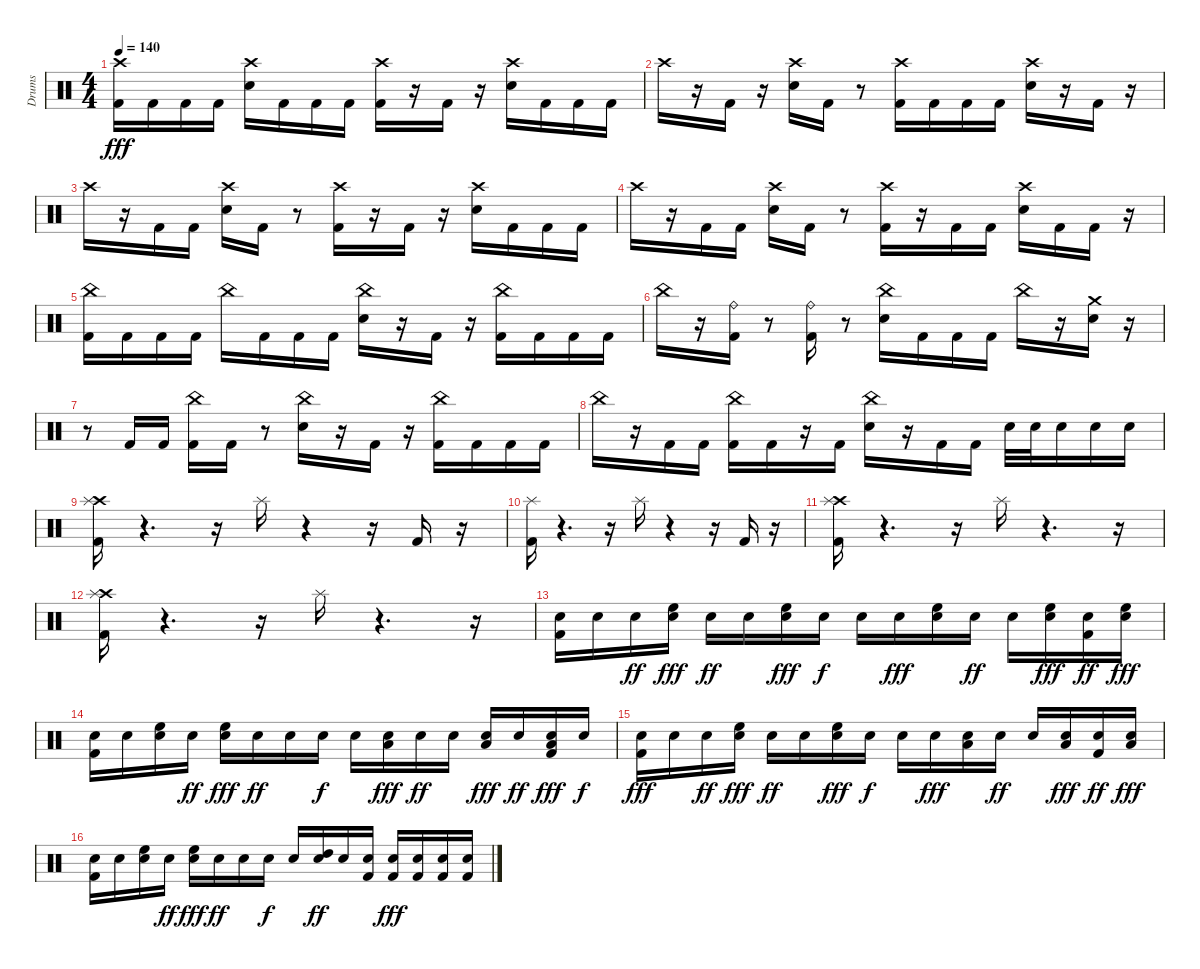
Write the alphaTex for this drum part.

\track ("Drums" "Drums") {instrument percussion}
\staff {score}
\articulation defaults
\ts (4 4)
\tempo 140
\clef neutral
\ks c
("Crash high (hit)" "Kick (hit) 2").16{dy fff} "Kick (hit) 2".16 "Kick (hit) 2".16 "Kick (hit) 2".16 ("Crash high (hit)" "Snare (hit) 2").16 "Kick (hit) 2".16 "Kick (hit) 2".16 "Kick (hit) 2".16 ("Crash high (hit)" "Kick (hit) 2").16 r.16 "Kick (hit) 2".16 r.16 ("Crash high (hit)" "Snare (hit) 2").16 "Kick (hit) 2".16 "Kick (hit) 2".16 "Kick (hit) 2".16 |
"Crash high (hit)".16 r.16 "Kick (hit) 2".16 r.16 ("Crash high (hit)" "Snare (hit) 2").16 "Kick (hit) 2".16 r.8 ("Crash high (hit)" "Kick (hit) 2").16 "Kick (hit) 2".16 "Kick (hit) 2".16 "Kick (hit) 2".16 ("Crash high (hit)" "Snare (hit) 2").16 r.16 "Kick (hit) 2".16 r.16 |
"Crash high (hit)".16 r.16 "Kick (hit) 2".16 "Kick (hit) 2".16 ("Crash high (hit)" "Snare (hit) 2").16 "Kick (hit) 2".16 r.8 ("Crash high (hit)" "Kick (hit) 2").16 r.16 "Kick (hit) 2".16 r.16 ("Crash high (hit)" "Snare (hit) 2").16 "Kick (hit) 2".16 "Kick (hit) 2".16 "Kick (hit) 2".16 |
"Crash high (hit)".16 r.16 "Kick (hit) 2".16 "Kick (hit) 2".16 ("Crash high (hit)" "Snare (hit) 2").16 "Kick (hit) 2".16 r.8 ("Crash high (hit)" "Kick (hit) 2").16 r.16 "Kick (hit) 2".16 "Kick (hit) 2".16 ("Crash high (hit)" "Snare (hit) 2").16 "Kick (hit) 2".16 "Kick (hit) 2".16 r.16 |
("Kick (hit) 2" "China (hit)").16 "Kick (hit) 2".16 "Kick (hit) 2".16 "Kick (hit) 2".16 "China (hit)".16 "Kick (hit) 2".16 "Kick (hit) 2".16 "Kick (hit) 2".16 ("Snare (hit) 2" "China (hit)").16 r.16 "Kick (hit) 2".16 r.16 ("Kick (hit) 2" "China (hit)").16 "Kick (hit) 2".16 "Kick (hit) 2".16 "Kick (hit) 2".16 |
"China (hit)".16 r.16 ("Kick (hit) 2" "Ride (bell)").16 r.8 ("Kick (hit) 2" "Ride (bell)").16 r.8 ("Snare (hit) 2" "China (hit)").16 "Kick (hit) 2".16 "Kick (hit) 2".16 "Kick (hit) 2".16 "China (hit)".16 r.16 ("Crash medium (hit)" "Snare (hit) 2").16 r.16 |
r.8 "Kick (hit) 2".16 "Kick (hit) 2".16 ("Kick (hit) 2" "China (hit)").16 "Kick (hit) 2".16 r.8 ("Snare (hit) 2" "China (hit)").16 r.16 "Kick (hit) 2".16 r.16 ("Kick (hit) 2" "China (hit)").16 "Kick (hit) 2".16 "Kick (hit) 2".16 "Kick (hit) 2".16 |
"China (hit)".16 r.16 "Kick (hit) 2".16 "Kick (hit) 2".16 ("Kick (hit) 2" "China (hit)").16 "Kick (hit) 2".16 r.16 "Kick (hit) 2".16 ("Snare (hit) 2" "China (hit)").16 r.16 "Kick (hit) 2".16 "Kick (hit) 2".16 "Snare (hit) 2".32 "Snare (hit) 2".32 "Snare (hit) 2".16 "Snare (hit) 2".16 "Snare (hit) 2".16 |
("Kick (hit) 2" "Crash high (hit)" "Splash (hit)").16 r.4{d} r.16 "Splash (hit)".16 r.4 r.16 "Kick (hit) 2".16 r.16 |
("Kick (hit) 2" "Splash (hit)").16 r.4{d} r.16 "Splash (hit)".16 r.4 r.16 "Kick (hit) 2".16 r.16 |
("Kick (hit) 2" "Crash high (hit)" "Splash (hit)").16 r.4{d} r.16 "Splash (hit)".16 r.4{d} r.16 |
("Kick (hit) 2" "Crash high (hit)" "Splash (hit)").16 r.4{d} r.16 "Splash (hit)".16 r.4{d} r.16 |
("Kick (hit) 2" "Snare (hit) 2").16 "Snare (hit) 2".16 "Snare (hit) 2".16{dy ff} ("Snare (hit) 2" "High Floor Tom (hit)").16{dy fff} "Snare (hit) 2".16{dy ff} "Snare (hit) 2".16 ("Snare (hit) 2" "High Floor Tom (hit)").16{dy fff} "Snare (hit) 2".16{dy f} "Snare (hit) 2".16 "Snare (hit) 2".16{dy fff} ("Snare (hit) 2" "High Floor Tom (hit)").16 "Snare (hit) 2".16{dy ff} "Snare (hit) 2".16 ("Snare (hit) 2" "High Floor Tom (hit)").16{dy fff} ("Kick (hit) 2" "Snare (hit) 2").16{dy ff} ("Snare (hit) 2" "High Floor Tom (hit)").16{dy fff} |
("Kick (hit) 2" "Snare (hit) 2").16 "Snare (hit) 2".16 ("Snare (hit) 2" "High Floor Tom (hit)").16 "Snare (hit) 2".16{dy ff} ("Snare (hit) 2" "High Floor Tom (hit)").16{dy fff} "Snare (hit) 2".16{dy ff} "Snare (hit) 2".16 "Snare (hit) 2".16{dy f} "Snare (hit) 2".16 ("Snare (hit) 2" "Low Tom (hit)").16{dy fff} "Snare (hit) 2".16{dy ff} "Snare (hit) 2".16 ("Snare (hit) 2" "Low Tom (hit)").16{dy fff} "Snare (hit) 2".16{dy ff} ("Kick (hit) 2" "Snare (hit) 2" "Low Tom (hit)").16{dy fff} "Snare (hit) 2".16{dy f} |
("Kick (hit) 2" "Snare (hit) 2").16{dy fff} "Snare (hit) 2".16 "Snare (hit) 2".16{dy ff} ("Snare (hit) 2" "High Floor Tom (hit)").16{dy fff} "Snare (hit) 2".16{dy ff} "Snare (hit) 2".16 ("Snare (hit) 2" "High Floor Tom (hit)").16{dy fff} "Snare (hit) 2".16{dy f} "Snare (hit) 2".16 "Snare (hit) 2".16{dy fff} ("Snare (hit) 2" "Low Tom (hit)").16 "Snare (hit) 2".16{dy ff} "Snare (hit) 2".16 ("Snare (hit) 2" "Low Tom (hit)").16{dy fff} ("Kick (hit) 2" "Snare (hit) 2").16{dy ff} ("Snare (hit) 2" "Low Tom (hit)").16{dy fff} |
("Kick (hit) 2" "Snare (hit) 2").16 "Snare (hit) 2".16 ("Snare (hit) 2" "High Floor Tom (hit)").16 "Snare (hit) 2".16{dy ff} ("Snare (hit) 2" "High Floor Tom (hit)").16{dy fff} "Snare (hit) 2".16{dy ff} "Snare (hit) 2".16 "Snare (hit) 2".16{dy f} "Snare (hit) 2".16 ("Snare (hit) 2" "High Tom (hit)").16{dy ff} "Snare (hit) 2".16 ("Kick (hit) 2" "Snare (hit) 2").16 ("Kick (hit) 2" "Snare (hit) 2").16{dy fff} ("Kick (hit) 2" "Snare (hit) 2").16 ("Kick (hit) 2" "Snare (hit) 2").16 ("Kick (hit) 2" "Snare (hit) 2").16
